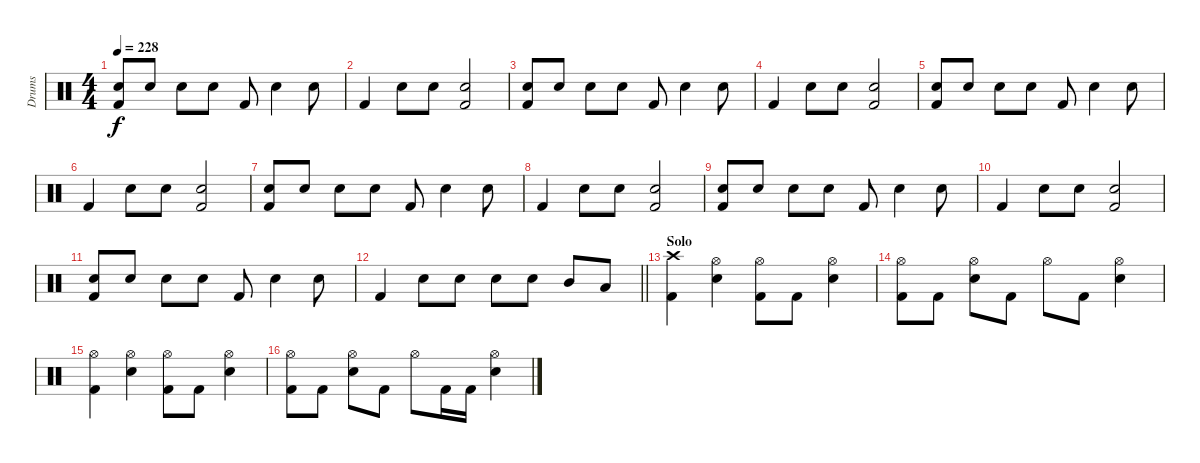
\track ("Drums" "Drums") {instrument percussion}
\staff {score}
\articulation defaults
\ts (4 4)
\tempo 228
\clef neutral
\ks c
("Snare (hit) 2" "Kick (hit) 2").8{dy f} "Snare (hit) 2".8 "Snare (hit) 2".8 "Snare (hit) 2".8 "Kick (hit) 2".8 "Snare (hit) 2".4 "Snare (hit) 2".8 |
"Kick (hit) 2".4 "Snare (hit) 2".8 "Snare (hit) 2".8 ("Snare (hit) 2" "Kick (hit) 2").2 |
("Snare (hit) 2" "Kick (hit) 2").8 "Snare (hit) 2".8 "Snare (hit) 2".8 "Snare (hit) 2".8 "Kick (hit) 2".8 "Snare (hit) 2".4 "Snare (hit) 2".8 |
"Kick (hit) 2".4 "Snare (hit) 2".8 "Snare (hit) 2".8 ("Snare (hit) 2" "Kick (hit) 2").2 |
("Snare (hit) 2" "Kick (hit) 2").8 "Snare (hit) 2".8 "Snare (hit) 2".8 "Snare (hit) 2".8 "Kick (hit) 2".8 "Snare (hit) 2".4 "Snare (hit) 2".8 |
"Kick (hit) 2".4 "Snare (hit) 2".8 "Snare (hit) 2".8 ("Snare (hit) 2" "Kick (hit) 2").2 |
("Snare (hit) 2" "Kick (hit) 2").8 "Snare (hit) 2".8 "Snare (hit) 2".8 "Snare (hit) 2".8 "Kick (hit) 2".8 "Snare (hit) 2".4 "Snare (hit) 2".8 |
"Kick (hit) 2".4 "Snare (hit) 2".8 "Snare (hit) 2".8 ("Snare (hit) 2" "Kick (hit) 2").2 |
("Snare (hit) 2" "Kick (hit) 2").8 "Snare (hit) 2".8 "Snare (hit) 2".8 "Snare (hit) 2".8 "Kick (hit) 2".8 "Snare (hit) 2".4 "Snare (hit) 2".8 |
"Kick (hit) 2".4 "Snare (hit) 2".8 "Snare (hit) 2".8 ("Snare (hit) 2" "Kick (hit) 2").2 |
("Snare (hit) 2" "Kick (hit) 2").8 "Snare (hit) 2".8 "Snare (hit) 2".8 "Snare (hit) 2".8 "Kick (hit) 2".8 "Snare (hit) 2".4 "Snare (hit) 2".8 |
\barLineRight lightlight "Kick (hit) 2".4 "Snare (hit) 2".8 "Snare (hit) 2".8 "Snare (hit) 2".8 "Snare (hit) 2".8 "Mid Tom (hit)".8 "Low Tom (hit)".8
|
\section ("" "Solo")
("Crash high (hit)" "Kick (hit) 2").4 ("Hi-Hat (open)" "Snare (hit) 2").4 ("Hi-Hat (open)" "Kick (hit) 2").8 "Kick (hit) 2".8 ("Hi-Hat (open)" "Snare (hit) 2").4 |
("Hi-Hat (open)" "Kick (hit) 2").8 "Kick (hit) 2".8 ("Hi-Hat (open)" "Snare (hit) 2").8 "Kick (hit) 2".8 "Hi-Hat (open)".8 "Kick (hit) 2".8 ("Hi-Hat (open)" "Snare (hit) 2").4 |
("Hi-Hat (open)" "Kick (hit) 2").4 ("Hi-Hat (open)" "Snare (hit) 2").4 ("Hi-Hat (open)" "Kick (hit) 2").8 "Kick (hit) 2".8 ("Hi-Hat (open)" "Snare (hit) 2").4 |
("Hi-Hat (open)" "Kick (hit) 2").8 "Kick (hit) 2".8 ("Hi-Hat (open)" "Snare (hit) 2").8 "Kick (hit) 2".8 "Hi-Hat (open)".8 "Kick (hit) 2".16 "Kick (hit) 2".16 ("Hi-Hat (open)" "Snare (hit) 2").4
